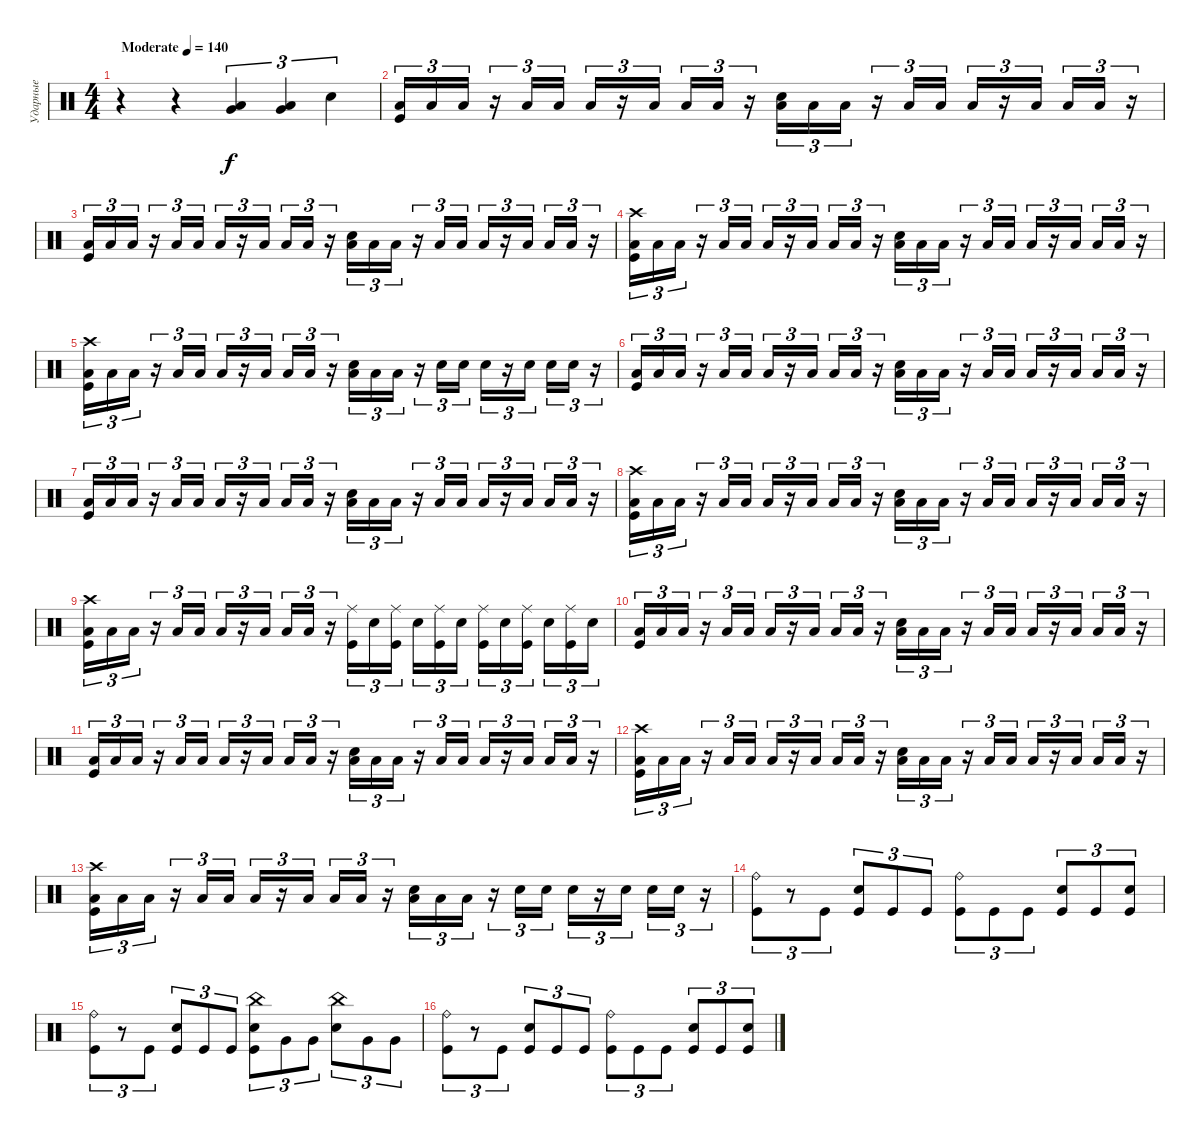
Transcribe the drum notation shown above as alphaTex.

\track ("Ударные" "Ударные") {instrument percussion}
\staff {score}
\articulation defaults
\ts (4 4)
\tempo (140 "Moderate")
\clef neutral
\ks c
r.4{dy f} r.4 ("Very Low Tom (hit)" "Low Floor Tom (hit)").4{tu (3 2)} ("Very Low Tom (hit)" "Low Floor Tom (hit)").4{tu (3 2)} "Electric Snare (hit)".4{tu (3 2)} |
("Low Floor Tom (hit)" "Kick (hit)").16{tu (3 2)} "Low Floor Tom (hit)".16{tu (3 2)} "Low Floor Tom (hit)".16{tu (3 2)} r.16{tu (3 2)} "Low Floor Tom (hit)".16{tu (3 2)} "Low Floor Tom (hit)".16{tu (3 2)} "Low Floor Tom (hit)".16{tu (3 2)} r.16{tu (3 2)} "Low Floor Tom (hit)".16{tu (3 2) beam splitsecondary} "Low Floor Tom (hit)".16{tu (3 2)} "Low Floor Tom (hit)".16{tu (3 2)} r.16{tu (3 2)} ("Low Floor Tom (hit)" "Electric Snare (hit)").16{tu (3 2)} "Low Floor Tom (hit)".16{tu (3 2)} "Low Floor Tom (hit)".16{tu (3 2)} r.16{tu (3 2)} "Low Floor Tom (hit)".16{tu (3 2)} "Low Floor Tom (hit)".16{tu (3 2)} "Low Floor Tom (hit)".16{tu (3 2)} r.16{tu (3 2)} "Low Floor Tom (hit)".16{tu (3 2) beam splitsecondary} "Low Floor Tom (hit)".16{tu (3 2)} "Low Floor Tom (hit)".16{tu (3 2)} r.16{tu (3 2)} |
("Low Floor Tom (hit)" "Kick (hit)").16{tu (3 2)} "Low Floor Tom (hit)".16{tu (3 2)} "Low Floor Tom (hit)".16{tu (3 2)} r.16{tu (3 2)} "Low Floor Tom (hit)".16{tu (3 2)} "Low Floor Tom (hit)".16{tu (3 2)} "Low Floor Tom (hit)".16{tu (3 2)} r.16{tu (3 2)} "Low Floor Tom (hit)".16{tu (3 2) beam splitsecondary} "Low Floor Tom (hit)".16{tu (3 2)} "Low Floor Tom (hit)".16{tu (3 2)} r.16{tu (3 2)} ("Low Floor Tom (hit)" "Electric Snare (hit)").16{tu (3 2)} "Low Floor Tom (hit)".16{tu (3 2)} "Low Floor Tom (hit)".16{tu (3 2)} r.16{tu (3 2)} "Low Floor Tom (hit)".16{tu (3 2)} "Low Floor Tom (hit)".16{tu (3 2)} "Low Floor Tom (hit)".16{tu (3 2)} r.16{tu (3 2)} "Low Floor Tom (hit)".16{tu (3 2) beam splitsecondary} "Low Floor Tom (hit)".16{tu (3 2)} "Low Floor Tom (hit)".16{tu (3 2)} r.16{tu (3 2)} |
("Low Floor Tom (hit)" "Kick (hit)" "Crash high (hit)").16{tu (3 2)} "Low Floor Tom (hit)".16{tu (3 2)} "Low Floor Tom (hit)".16{tu (3 2)} r.16{tu (3 2)} "Low Floor Tom (hit)".16{tu (3 2)} "Low Floor Tom (hit)".16{tu (3 2)} "Low Floor Tom (hit)".16{tu (3 2)} r.16{tu (3 2)} "Low Floor Tom (hit)".16{tu (3 2) beam splitsecondary} "Low Floor Tom (hit)".16{tu (3 2)} "Low Floor Tom (hit)".16{tu (3 2)} r.16{tu (3 2)} ("Low Floor Tom (hit)" "Electric Snare (hit)").16{tu (3 2)} "Low Floor Tom (hit)".16{tu (3 2)} "Low Floor Tom (hit)".16{tu (3 2)} r.16{tu (3 2)} "Low Floor Tom (hit)".16{tu (3 2)} "Low Floor Tom (hit)".16{tu (3 2)} "Low Floor Tom (hit)".16{tu (3 2)} r.16{tu (3 2)} "Low Floor Tom (hit)".16{tu (3 2) beam splitsecondary} "Low Floor Tom (hit)".16{tu (3 2)} "Low Floor Tom (hit)".16{tu (3 2)} r.16{tu (3 2)} |
("Low Floor Tom (hit)" "Kick (hit)" "Crash high (hit)").16{tu (3 2)} "Low Floor Tom (hit)".16{tu (3 2)} "Low Floor Tom (hit)".16{tu (3 2)} r.16{tu (3 2)} "Low Floor Tom (hit)".16{tu (3 2)} "Low Floor Tom (hit)".16{tu (3 2)} "Low Floor Tom (hit)".16{tu (3 2)} r.16{tu (3 2)} "Low Floor Tom (hit)".16{tu (3 2) beam splitsecondary} "Low Floor Tom (hit)".16{tu (3 2)} "Low Floor Tom (hit)".16{tu (3 2)} r.16{tu (3 2)} ("Low Floor Tom (hit)" "Electric Snare (hit)").16{tu (3 2)} "Low Floor Tom (hit)".16{tu (3 2)} "Low Floor Tom (hit)".16{tu (3 2)} r.16{tu (3 2)} "Electric Snare (hit)".16{tu (3 2)} "Electric Snare (hit)".16{tu (3 2)} "Electric Snare (hit)".16{tu (3 2)} r.16{tu (3 2)} "Electric Snare (hit)".16{tu (3 2) beam splitsecondary} "Electric Snare (hit)".16{tu (3 2)} "Electric Snare (hit)".16{tu (3 2)} r.16{tu (3 2)} |
("Low Floor Tom (hit)" "Kick (hit)").16{tu (3 2)} "Low Floor Tom (hit)".16{tu (3 2)} "Low Floor Tom (hit)".16{tu (3 2)} r.16{tu (3 2)} "Low Floor Tom (hit)".16{tu (3 2)} "Low Floor Tom (hit)".16{tu (3 2)} "Low Floor Tom (hit)".16{tu (3 2)} r.16{tu (3 2)} "Low Floor Tom (hit)".16{tu (3 2) beam splitsecondary} "Low Floor Tom (hit)".16{tu (3 2)} "Low Floor Tom (hit)".16{tu (3 2)} r.16{tu (3 2)} ("Low Floor Tom (hit)" "Electric Snare (hit)").16{tu (3 2)} "Low Floor Tom (hit)".16{tu (3 2)} "Low Floor Tom (hit)".16{tu (3 2)} r.16{tu (3 2)} "Low Floor Tom (hit)".16{tu (3 2)} "Low Floor Tom (hit)".16{tu (3 2)} "Low Floor Tom (hit)".16{tu (3 2)} r.16{tu (3 2)} "Low Floor Tom (hit)".16{tu (3 2) beam splitsecondary} "Low Floor Tom (hit)".16{tu (3 2)} "Low Floor Tom (hit)".16{tu (3 2)} r.16{tu (3 2)} |
("Low Floor Tom (hit)" "Kick (hit)").16{tu (3 2)} "Low Floor Tom (hit)".16{tu (3 2)} "Low Floor Tom (hit)".16{tu (3 2)} r.16{tu (3 2)} "Low Floor Tom (hit)".16{tu (3 2)} "Low Floor Tom (hit)".16{tu (3 2)} "Low Floor Tom (hit)".16{tu (3 2)} r.16{tu (3 2)} "Low Floor Tom (hit)".16{tu (3 2) beam splitsecondary} "Low Floor Tom (hit)".16{tu (3 2)} "Low Floor Tom (hit)".16{tu (3 2)} r.16{tu (3 2)} ("Low Floor Tom (hit)" "Electric Snare (hit)").16{tu (3 2)} "Low Floor Tom (hit)".16{tu (3 2)} "Low Floor Tom (hit)".16{tu (3 2)} r.16{tu (3 2)} "Low Floor Tom (hit)".16{tu (3 2)} "Low Floor Tom (hit)".16{tu (3 2)} "Low Floor Tom (hit)".16{tu (3 2)} r.16{tu (3 2)} "Low Floor Tom (hit)".16{tu (3 2) beam splitsecondary} "Low Floor Tom (hit)".16{tu (3 2)} "Low Floor Tom (hit)".16{tu (3 2)} r.16{tu (3 2)} |
("Low Floor Tom (hit)" "Kick (hit)" "Crash high (hit)").16{tu (3 2)} "Low Floor Tom (hit)".16{tu (3 2)} "Low Floor Tom (hit)".16{tu (3 2)} r.16{tu (3 2)} "Low Floor Tom (hit)".16{tu (3 2)} "Low Floor Tom (hit)".16{tu (3 2)} "Low Floor Tom (hit)".16{tu (3 2)} r.16{tu (3 2)} "Low Floor Tom (hit)".16{tu (3 2) beam splitsecondary} "Low Floor Tom (hit)".16{tu (3 2)} "Low Floor Tom (hit)".16{tu (3 2)} r.16{tu (3 2)} ("Low Floor Tom (hit)" "Electric Snare (hit)").16{tu (3 2)} "Low Floor Tom (hit)".16{tu (3 2)} "Low Floor Tom (hit)".16{tu (3 2)} r.16{tu (3 2)} "Low Floor Tom (hit)".16{tu (3 2)} "Low Floor Tom (hit)".16{tu (3 2)} "Low Floor Tom (hit)".16{tu (3 2)} r.16{tu (3 2)} "Low Floor Tom (hit)".16{tu (3 2) beam splitsecondary} "Low Floor Tom (hit)".16{tu (3 2)} "Low Floor Tom (hit)".16{tu (3 2)} r.16{tu (3 2)} |
("Low Floor Tom (hit)" "Kick (hit)" "Crash high (hit)").16{tu (3 2)} "Low Floor Tom (hit)".16{tu (3 2)} "Low Floor Tom (hit)".16{tu (3 2)} r.16{tu (3 2)} "Low Floor Tom (hit)".16{tu (3 2)} "Low Floor Tom (hit)".16{tu (3 2)} "Low Floor Tom (hit)".16{tu (3 2)} r.16{tu (3 2)} "Low Floor Tom (hit)".16{tu (3 2) beam splitsecondary} "Low Floor Tom (hit)".16{tu (3 2)} "Low Floor Tom (hit)".16{tu (3 2)} r.16{tu (3 2)} ("Ride (middle)" "Kick (hit)").16{tu (3 2)} "Electric Snare (hit)".16{tu (3 2)} ("Ride (middle)" "Kick (hit)").16{tu (3 2) beam splitsecondary} "Electric Snare (hit)".16{tu (3 2)} ("Ride (middle)" "Kick (hit)").16{tu (3 2)} "Electric Snare (hit)".16{tu (3 2)} ("Ride (middle)" "Kick (hit)").16{tu (3 2)} "Electric Snare (hit)".16{tu (3 2)} ("Ride (middle)" "Kick (hit)").16{tu (3 2) beam splitsecondary} "Electric Snare (hit)".16{tu (3 2)} ("Ride (middle)" "Kick (hit)").16{tu (3 2)} "Electric Snare (hit)".16{tu (3 2)} |
("Low Floor Tom (hit)" "Kick (hit)").16{tu (3 2)} "Low Floor Tom (hit)".16{tu (3 2)} "Low Floor Tom (hit)".16{tu (3 2)} r.16{tu (3 2)} "Low Floor Tom (hit)".16{tu (3 2)} "Low Floor Tom (hit)".16{tu (3 2)} "Low Floor Tom (hit)".16{tu (3 2)} r.16{tu (3 2)} "Low Floor Tom (hit)".16{tu (3 2) beam splitsecondary} "Low Floor Tom (hit)".16{tu (3 2)} "Low Floor Tom (hit)".16{tu (3 2)} r.16{tu (3 2)} ("Low Floor Tom (hit)" "Electric Snare (hit)").16{tu (3 2)} "Low Floor Tom (hit)".16{tu (3 2)} "Low Floor Tom (hit)".16{tu (3 2)} r.16{tu (3 2)} "Low Floor Tom (hit)".16{tu (3 2)} "Low Floor Tom (hit)".16{tu (3 2)} "Low Floor Tom (hit)".16{tu (3 2)} r.16{tu (3 2)} "Low Floor Tom (hit)".16{tu (3 2) beam splitsecondary} "Low Floor Tom (hit)".16{tu (3 2)} "Low Floor Tom (hit)".16{tu (3 2)} r.16{tu (3 2)} |
("Low Floor Tom (hit)" "Kick (hit)").16{tu (3 2)} "Low Floor Tom (hit)".16{tu (3 2)} "Low Floor Tom (hit)".16{tu (3 2)} r.16{tu (3 2)} "Low Floor Tom (hit)".16{tu (3 2)} "Low Floor Tom (hit)".16{tu (3 2)} "Low Floor Tom (hit)".16{tu (3 2)} r.16{tu (3 2)} "Low Floor Tom (hit)".16{tu (3 2) beam splitsecondary} "Low Floor Tom (hit)".16{tu (3 2)} "Low Floor Tom (hit)".16{tu (3 2)} r.16{tu (3 2)} ("Low Floor Tom (hit)" "Electric Snare (hit)").16{tu (3 2)} "Low Floor Tom (hit)".16{tu (3 2)} "Low Floor Tom (hit)".16{tu (3 2)} r.16{tu (3 2)} "Low Floor Tom (hit)".16{tu (3 2)} "Low Floor Tom (hit)".16{tu (3 2)} "Low Floor Tom (hit)".16{tu (3 2)} r.16{tu (3 2)} "Low Floor Tom (hit)".16{tu (3 2) beam splitsecondary} "Low Floor Tom (hit)".16{tu (3 2)} "Low Floor Tom (hit)".16{tu (3 2)} r.16{tu (3 2)} |
("Low Floor Tom (hit)" "Kick (hit)" "Crash high (hit)").16{tu (3 2)} "Low Floor Tom (hit)".16{tu (3 2)} "Low Floor Tom (hit)".16{tu (3 2)} r.16{tu (3 2)} "Low Floor Tom (hit)".16{tu (3 2)} "Low Floor Tom (hit)".16{tu (3 2)} "Low Floor Tom (hit)".16{tu (3 2)} r.16{tu (3 2)} "Low Floor Tom (hit)".16{tu (3 2) beam splitsecondary} "Low Floor Tom (hit)".16{tu (3 2)} "Low Floor Tom (hit)".16{tu (3 2)} r.16{tu (3 2)} ("Low Floor Tom (hit)" "Electric Snare (hit)").16{tu (3 2)} "Low Floor Tom (hit)".16{tu (3 2)} "Low Floor Tom (hit)".16{tu (3 2)} r.16{tu (3 2)} "Low Floor Tom (hit)".16{tu (3 2)} "Low Floor Tom (hit)".16{tu (3 2)} "Low Floor Tom (hit)".16{tu (3 2)} r.16{tu (3 2)} "Low Floor Tom (hit)".16{tu (3 2) beam splitsecondary} "Low Floor Tom (hit)".16{tu (3 2)} "Low Floor Tom (hit)".16{tu (3 2)} r.16{tu (3 2)} |
("Low Floor Tom (hit)" "Kick (hit)" "Crash high (hit)").16{tu (3 2)} "Low Floor Tom (hit)".16{tu (3 2)} "Low Floor Tom (hit)".16{tu (3 2)} r.16{tu (3 2)} "Low Floor Tom (hit)".16{tu (3 2)} "Low Floor Tom (hit)".16{tu (3 2)} "Low Floor Tom (hit)".16{tu (3 2)} r.16{tu (3 2)} "Low Floor Tom (hit)".16{tu (3 2) beam splitsecondary} "Low Floor Tom (hit)".16{tu (3 2)} "Low Floor Tom (hit)".16{tu (3 2)} r.16{tu (3 2)} ("Low Floor Tom (hit)" "Electric Snare (hit)").16{tu (3 2)} "Low Floor Tom (hit)".16{tu (3 2)} "Low Floor Tom (hit)".16{tu (3 2)} r.16{tu (3 2)} "Electric Snare (hit)".16{tu (3 2)} "Electric Snare (hit)".16{tu (3 2)} "Electric Snare (hit)".16{tu (3 2)} r.16{tu (3 2)} "Electric Snare (hit)".16{tu (3 2) beam splitsecondary} "Electric Snare (hit)".16{tu (3 2)} "Electric Snare (hit)".16{tu (3 2)} r.16{tu (3 2)} |
("Ride (bell)" "Kick (hit)").8{tu (3 2)} r.8{tu (3 2)} "Kick (hit)".8{tu (3 2)} ("Electric Snare (hit)" "Kick (hit)").8{tu (3 2)} "Kick (hit)".8{tu (3 2)} "Kick (hit)".8{tu (3 2)} ("Ride (bell)" "Kick (hit)").8{tu (3 2)} "Kick (hit)".8{tu (3 2)} "Kick (hit)".8{tu (3 2)} ("Electric Snare (hit)" "Kick (hit)").8{tu (3 2)} "Kick (hit)".8{tu (3 2)} ("Electric Snare (hit)" "Kick (hit)").8{tu (3 2)} |
("Ride (bell)" "Kick (hit)").8{tu (3 2)} r.8{tu (3 2)} "Kick (hit)".8{tu (3 2)} ("Electric Snare (hit)" "Kick (hit)").8{tu (3 2)} "Kick (hit)".8{tu (3 2)} "Kick (hit)".8{tu (3 2)} ("Electric Snare (hit)" "Kick (hit)" "China (hit)").8{tu (3 2)} "Very Low Tom (hit)".8{tu (3 2)} "Very Low Tom (hit)".8{tu (3 2)} ("Electric Snare (hit)" "China (hit)").8{tu (3 2)} "Very Low Tom (hit)".8{tu (3 2)} "Very Low Tom (hit)".8{tu (3 2)} |
("Ride (bell)" "Kick (hit)").8{tu (3 2)} r.8{tu (3 2)} "Kick (hit)".8{tu (3 2)} ("Electric Snare (hit)" "Kick (hit)").8{tu (3 2)} "Kick (hit)".8{tu (3 2)} "Kick (hit)".8{tu (3 2)} ("Ride (bell)" "Kick (hit)").8{tu (3 2)} "Kick (hit)".8{tu (3 2)} "Kick (hit)".8{tu (3 2)} ("Electric Snare (hit)" "Kick (hit)").8{tu (3 2)} "Kick (hit)".8{tu (3 2)} ("Electric Snare (hit)" "Kick (hit)").8{tu (3 2)}
